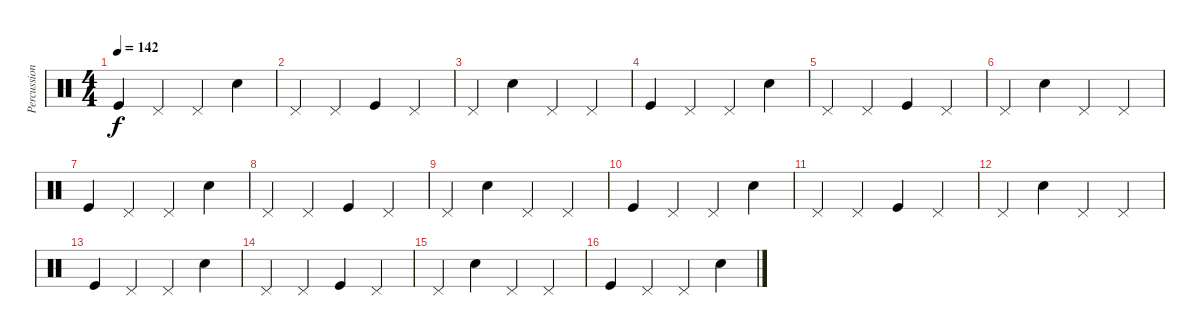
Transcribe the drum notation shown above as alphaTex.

\track ("Percussion" "Percussion") {instrument percussion}
\staff {score}
\articulation defaults
\ts (4 4)
\tempo 142
\clef neutral
\ks c "Kick (hit)".4{dy f} "Pedal Hi-Hat (hit)".4 "Pedal Hi-Hat (hit)".4 "Electric Snare (hit)".4
|
"Pedal Hi-Hat (hit)".4 "Pedal Hi-Hat (hit)".4 "Kick (hit)".4 "Pedal Hi-Hat (hit)".4 |
"Pedal Hi-Hat (hit)".4 "Electric Snare (hit)".4 "Pedal Hi-Hat (hit)".4 "Pedal Hi-Hat (hit)".4 |
"Kick (hit)".4 "Pedal Hi-Hat (hit)".4 "Pedal Hi-Hat (hit)".4 "Electric Snare (hit)".4 |
"Pedal Hi-Hat (hit)".4 "Pedal Hi-Hat (hit)".4 "Kick (hit)".4 "Pedal Hi-Hat (hit)".4 |
"Pedal Hi-Hat (hit)".4 "Electric Snare (hit)".4 "Pedal Hi-Hat (hit)".4 "Pedal Hi-Hat (hit)".4 |
"Kick (hit)".4 "Pedal Hi-Hat (hit)".4 "Pedal Hi-Hat (hit)".4 "Electric Snare (hit)".4 |
"Pedal Hi-Hat (hit)".4 "Pedal Hi-Hat (hit)".4 "Kick (hit)".4 "Pedal Hi-Hat (hit)".4 |
"Pedal Hi-Hat (hit)".4 "Electric Snare (hit)".4 "Pedal Hi-Hat (hit)".4 "Pedal Hi-Hat (hit)".4 |
"Kick (hit)".4 "Pedal Hi-Hat (hit)".4 "Pedal Hi-Hat (hit)".4 "Electric Snare (hit)".4 |
"Pedal Hi-Hat (hit)".4 "Pedal Hi-Hat (hit)".4 "Kick (hit)".4 "Pedal Hi-Hat (hit)".4 |
"Pedal Hi-Hat (hit)".4 "Electric Snare (hit)".4 "Pedal Hi-Hat (hit)".4 "Pedal Hi-Hat (hit)".4 |
"Kick (hit)".4 "Pedal Hi-Hat (hit)".4 "Pedal Hi-Hat (hit)".4 "Electric Snare (hit)".4 |
"Pedal Hi-Hat (hit)".4 "Pedal Hi-Hat (hit)".4 "Kick (hit)".4 "Pedal Hi-Hat (hit)".4 |
"Pedal Hi-Hat (hit)".4 "Electric Snare (hit)".4 "Pedal Hi-Hat (hit)".4 "Pedal Hi-Hat (hit)".4 |
"Kick (hit)".4 "Pedal Hi-Hat (hit)".4 "Pedal Hi-Hat (hit)".4 "Electric Snare (hit)".4
